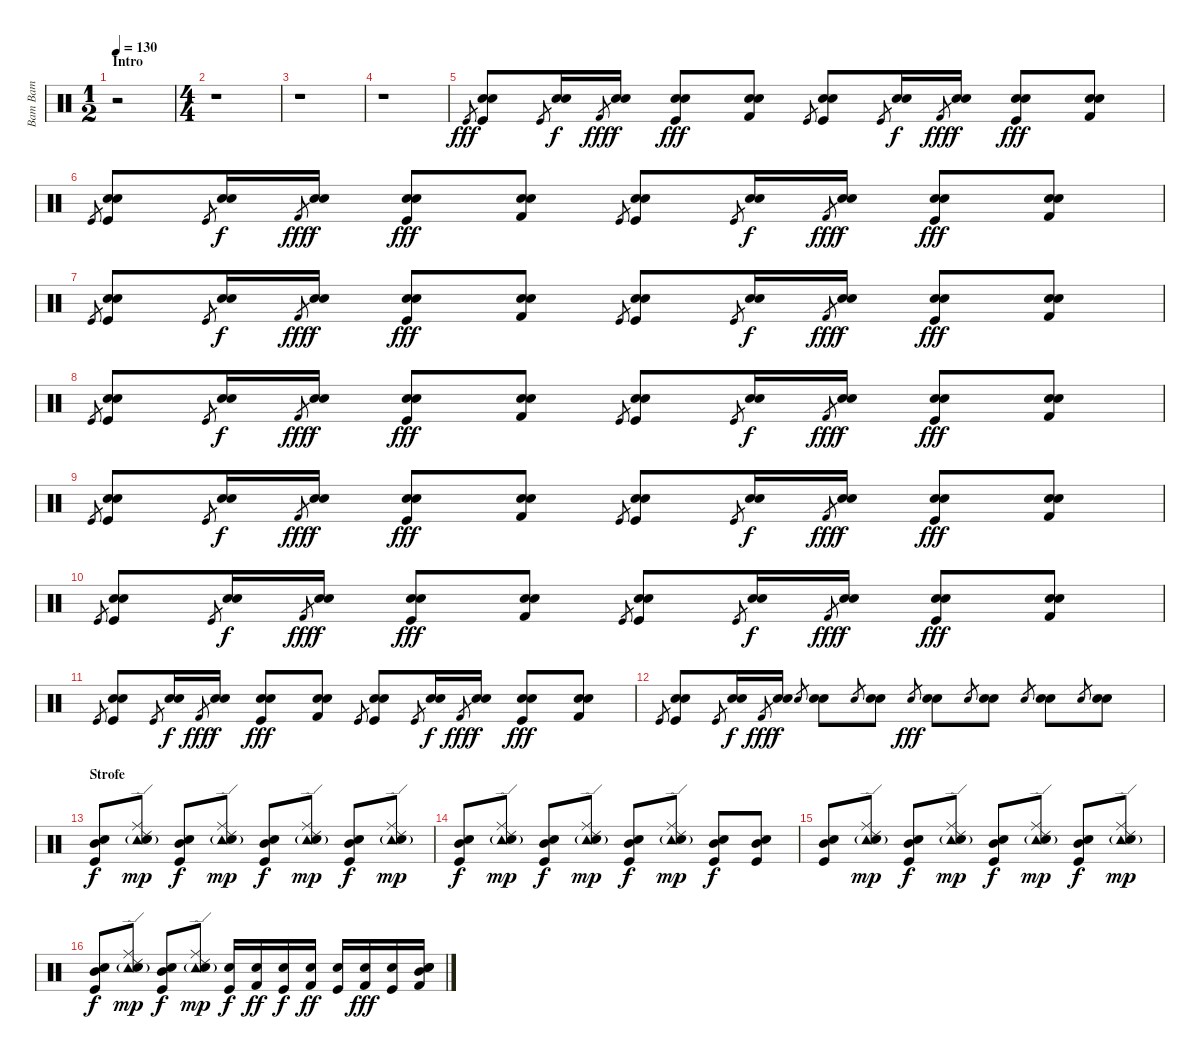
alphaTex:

\track ("Bam Bam" "Bam Bam") {instrument percussion}
\staff {score}
\articulation defaults
\ts (1 2)
\section ("" "Intro")
\tempo 130
\clef neutral
\ks c
r.2{dy fff} |
\ts (4 4)
r.1 |
r.1 |
r.1 |
"Kick (hit)".8{gr} ("Electric Snare (hit)" "Kick (hit)" "Snare (hit) 2").8 "Kick (hit)".8{gr} ("Electric Snare (hit)" "Snare (hit) 2").16{dy f} "Kick (hit) 2".8{gr dy fff} ("Electric Snare (hit)" "Snare (hit) 2").16{dy f} ("Electric Snare (hit)" "Kick (hit)" "Snare (hit) 2").8{dy fff} ("Electric Snare (hit)" "Kick (hit) 2" "Snare (hit) 2").8 "Kick (hit)".8{gr} ("Electric Snare (hit)" "Kick (hit)" "Snare (hit) 2").8 "Kick (hit)".8{gr} ("Electric Snare (hit)" "Snare (hit) 2").16{dy f} "Kick (hit) 2".8{gr dy fff} ("Electric Snare (hit)" "Snare (hit) 2").16{dy f} ("Electric Snare (hit)" "Kick (hit)" "Snare (hit) 2").8{dy fff} ("Electric Snare (hit)" "Kick (hit) 2" "Snare (hit) 2").8 |
"Kick (hit)".8{gr} ("Electric Snare (hit)" "Kick (hit)" "Snare (hit) 2").8 "Kick (hit)".8{gr} ("Electric Snare (hit)" "Snare (hit) 2").16{dy f} "Kick (hit) 2".8{gr dy fff} ("Electric Snare (hit)" "Snare (hit) 2").16{dy f} ("Electric Snare (hit)" "Kick (hit)" "Snare (hit) 2").8{dy fff} ("Electric Snare (hit)" "Kick (hit) 2" "Snare (hit) 2").8 "Kick (hit)".8{gr} ("Electric Snare (hit)" "Kick (hit)" "Snare (hit) 2").8 "Kick (hit)".8{gr} ("Electric Snare (hit)" "Snare (hit) 2").16{dy f} "Kick (hit) 2".8{gr dy fff} ("Electric Snare (hit)" "Snare (hit) 2").16{dy f} ("Electric Snare (hit)" "Kick (hit)" "Snare (hit) 2").8{dy fff} ("Electric Snare (hit)" "Kick (hit) 2" "Snare (hit) 2").8 |
"Kick (hit)".8{gr} ("Electric Snare (hit)" "Kick (hit)" "Snare (hit) 2").8 "Kick (hit)".8{gr} ("Electric Snare (hit)" "Snare (hit) 2").16{dy f} "Kick (hit) 2".8{gr dy fff} ("Electric Snare (hit)" "Snare (hit) 2").16{dy f} ("Electric Snare (hit)" "Kick (hit)" "Snare (hit) 2").8{dy fff} ("Electric Snare (hit)" "Kick (hit) 2" "Snare (hit) 2").8 "Kick (hit)".8{gr} ("Electric Snare (hit)" "Kick (hit)" "Snare (hit) 2").8 "Kick (hit)".8{gr} ("Electric Snare (hit)" "Snare (hit) 2").16{dy f} "Kick (hit) 2".8{gr dy fff} ("Electric Snare (hit)" "Snare (hit) 2").16{dy f} ("Electric Snare (hit)" "Kick (hit)" "Snare (hit) 2").8{dy fff} ("Electric Snare (hit)" "Kick (hit) 2" "Snare (hit) 2").8 |
"Kick (hit)".8{gr} ("Electric Snare (hit)" "Kick (hit)" "Snare (hit) 2").8 "Kick (hit)".8{gr} ("Electric Snare (hit)" "Snare (hit) 2").16{dy f} "Kick (hit) 2".8{gr dy fff} ("Electric Snare (hit)" "Snare (hit) 2").16{dy f} ("Electric Snare (hit)" "Kick (hit)" "Snare (hit) 2").8{dy fff} ("Electric Snare (hit)" "Kick (hit) 2" "Snare (hit) 2").8 "Kick (hit)".8{gr} ("Electric Snare (hit)" "Kick (hit)" "Snare (hit) 2").8 "Kick (hit)".8{gr} ("Electric Snare (hit)" "Snare (hit) 2").16{dy f} "Kick (hit) 2".8{gr dy fff} ("Electric Snare (hit)" "Snare (hit) 2").16{dy f} ("Electric Snare (hit)" "Kick (hit)" "Snare (hit) 2").8{dy fff} ("Electric Snare (hit)" "Kick (hit) 2" "Snare (hit) 2").8 |
"Kick (hit)".8{gr} ("Electric Snare (hit)" "Kick (hit)" "Snare (hit) 2").8 "Kick (hit)".8{gr} ("Electric Snare (hit)" "Snare (hit) 2").16{dy f} "Kick (hit) 2".8{gr dy fff} ("Electric Snare (hit)" "Snare (hit) 2").16{dy f} ("Electric Snare (hit)" "Kick (hit)" "Snare (hit) 2").8{dy fff} ("Electric Snare (hit)" "Kick (hit) 2" "Snare (hit) 2").8 "Kick (hit)".8{gr} ("Electric Snare (hit)" "Kick (hit)" "Snare (hit) 2").8 "Kick (hit)".8{gr} ("Electric Snare (hit)" "Snare (hit) 2").16{dy f} "Kick (hit) 2".8{gr dy fff} ("Electric Snare (hit)" "Snare (hit) 2").16{dy f} ("Electric Snare (hit)" "Kick (hit)" "Snare (hit) 2").8{dy fff} ("Electric Snare (hit)" "Kick (hit) 2" "Snare (hit) 2").8 |
"Kick (hit)".8{gr} ("Electric Snare (hit)" "Kick (hit)" "Snare (hit) 2").8 "Kick (hit)".8{gr} ("Electric Snare (hit)" "Snare (hit) 2").16{dy f} "Kick (hit) 2".8{gr dy fff} ("Electric Snare (hit)" "Snare (hit) 2").16{dy f} ("Electric Snare (hit)" "Kick (hit)" "Snare (hit) 2").8{dy fff} ("Electric Snare (hit)" "Kick (hit) 2" "Snare (hit) 2").8 "Kick (hit)".8{gr} ("Electric Snare (hit)" "Kick (hit)" "Snare (hit) 2").8 "Kick (hit)".8{gr} ("Electric Snare (hit)" "Snare (hit) 2").16{dy f} "Kick (hit) 2".8{gr dy fff} ("Electric Snare (hit)" "Snare (hit) 2").16{dy f} ("Electric Snare (hit)" "Kick (hit)" "Snare (hit) 2").8{dy fff} ("Electric Snare (hit)" "Kick (hit) 2" "Snare (hit) 2").8 |
"Kick (hit)".8{gr} ("Electric Snare (hit)" "Kick (hit)" "Snare (hit) 2").8 "Kick (hit)".8{gr} ("Electric Snare (hit)" "Snare (hit) 2").16{dy f} "Kick (hit) 2".8{gr dy fff} ("Electric Snare (hit)" "Snare (hit) 2").16{dy f} ("Electric Snare (hit)" "Kick (hit)" "Snare (hit) 2").8{dy fff} ("Electric Snare (hit)" "Kick (hit) 2" "Snare (hit) 2").8 "Kick (hit)".8{gr} ("Electric Snare (hit)" "Kick (hit)" "Snare (hit) 2").8 "Kick (hit)".8{gr} ("Electric Snare (hit)" "Snare (hit) 2").16{dy f} "Kick (hit) 2".8{gr dy fff} ("Electric Snare (hit)" "Snare (hit) 2").16{dy f} ("Electric Snare (hit)" "Kick (hit)" "Snare (hit) 2").8{dy fff} ("Electric Snare (hit)" "Kick (hit) 2" "Snare (hit) 2").8 |
"Kick (hit)".8{gr} ("Electric Snare (hit)" "Kick (hit)" "Snare (hit) 2").8 "Kick (hit)".8{gr} ("Electric Snare (hit)" "Snare (hit) 2").16{dy f} "Kick (hit) 2".8{gr dy fff} ("Electric Snare (hit)" "Snare (hit) 2").16{dy f} "Snare (hit) 2".8{gr} ("Electric Snare (hit)" "Snare (hit) 2").8 "Snare (hit) 2".8{gr} ("Electric Snare (hit)" "Electric Snare (hit)").8 "Electric Snare (hit)".8{gr dy fff} ("Snare (hit) 2" "Snare (hit) 2").8 "Snare (hit) 2".8{gr} ("Electric Snare (hit)" "Electric Snare (hit)").8 "Electric Snare (hit)".8{gr} ("Snare (hit) 2" "Snare (hit) 2").8 "Snare (hit) 2".8{gr} ("Electric Snare (hit)" "Electric Snare (hit)").8 |
\section ("" "Strofe")
("Kick (hit)" "Mid Tom (hit)" "Electric Snare (hit)").8{dy f} ("Ride (middle)" "Tambourine (hit)" "Ride (edge) 2" "Snare (hit) 2"{g}).8{dy mp} ("Kick (hit)" "Mid Tom (hit)" "Electric Snare (hit)").8{dy f} ("Ride (middle)" "Tambourine (hit)" "Ride (edge) 2" "Snare (hit) 2"{g}).8{dy mp} ("Kick (hit)" "Mid Tom (hit)" "Electric Snare (hit)").8{dy f} ("Ride (middle)" "Tambourine (hit)" "Ride (edge) 2" "Snare (hit) 2"{g}).8{dy mp} ("Kick (hit)" "Mid Tom (hit)" "Electric Snare (hit)").8{dy f} ("Ride (middle)" "Tambourine (hit)" "Ride (edge) 2" "Snare (hit) 2"{g}).8{dy mp} |
("Kick (hit)" "Mid Tom (hit)" "Electric Snare (hit)").8{dy f} ("Ride (middle)" "Tambourine (hit)" "Ride (edge) 2" "Snare (hit) 2"{g}).8{dy mp} ("Kick (hit)" "Mid Tom (hit)" "Electric Snare (hit)").8{dy f} ("Ride (middle)" "Tambourine (hit)" "Ride (edge) 2" "Snare (hit) 2"{g}).8{dy mp} ("Kick (hit)" "Mid Tom (hit)" "Electric Snare (hit)").8{dy f} ("Ride (middle)" "Tambourine (hit)" "Ride (edge) 2" "Snare (hit) 2"{g}).8{dy mp} ("Kick (hit)" "Mid Tom (hit)" "Snare (hit) 2").8{dy f} ("Kick (hit)" "Mid Tom (hit)" "Electric Snare (hit)").8 |
("Kick (hit)" "Mid Tom (hit)" "Electric Snare (hit)").8 ("Ride (middle)" "Tambourine (hit)" "Ride (edge) 2" "Snare (hit) 2"{g}).8{dy mp} ("Kick (hit)" "Mid Tom (hit)" "Electric Snare (hit)").8{dy f} ("Ride (middle)" "Tambourine (hit)" "Ride (edge) 2" "Snare (hit) 2"{g}).8{dy mp} ("Kick (hit)" "Mid Tom (hit)" "Electric Snare (hit)").8{dy f} ("Ride (middle)" "Tambourine (hit)" "Ride (edge) 2" "Snare (hit) 2"{g}).8{dy mp} ("Kick (hit)" "Mid Tom (hit)" "Electric Snare (hit)").8{dy f} ("Ride (middle)" "Tambourine (hit)" "Ride (edge) 2" "Snare (hit) 2"{g}).8{dy mp} |
("Kick (hit)" "Mid Tom (hit)" "Electric Snare (hit)").8{dy f} ("Ride (middle)" "Tambourine (hit)" "Ride (edge) 2" "Snare (hit) 2"{g}).8{dy mp} ("Kick (hit)" "Mid Tom (hit)" "Electric Snare (hit)").8{dy f} ("Ride (middle)" "Tambourine (hit)" "Ride (edge) 2" "Snare (hit) 2"{g}).8{dy mp} ("Kick (hit)" "Snare (hit) 2").16{dy f} ("Kick (hit) 2" "Electric Snare (hit)").16{dy ff} ("Kick (hit)" "Snare (hit) 2").16{dy f} ("Kick (hit) 2" "Electric Snare (hit)").16{dy ff} ("Kick (hit)" "Snare (hit) 2").16 ("Kick (hit) 2" "Electric Snare (hit)").16{dy fff} ("Kick (hit)" "Snare (hit) 2").16 ("Mid Tom (hit)" "Kick (hit) 2" "Electric Snare (hit)" "Snare (hit) 2").16
